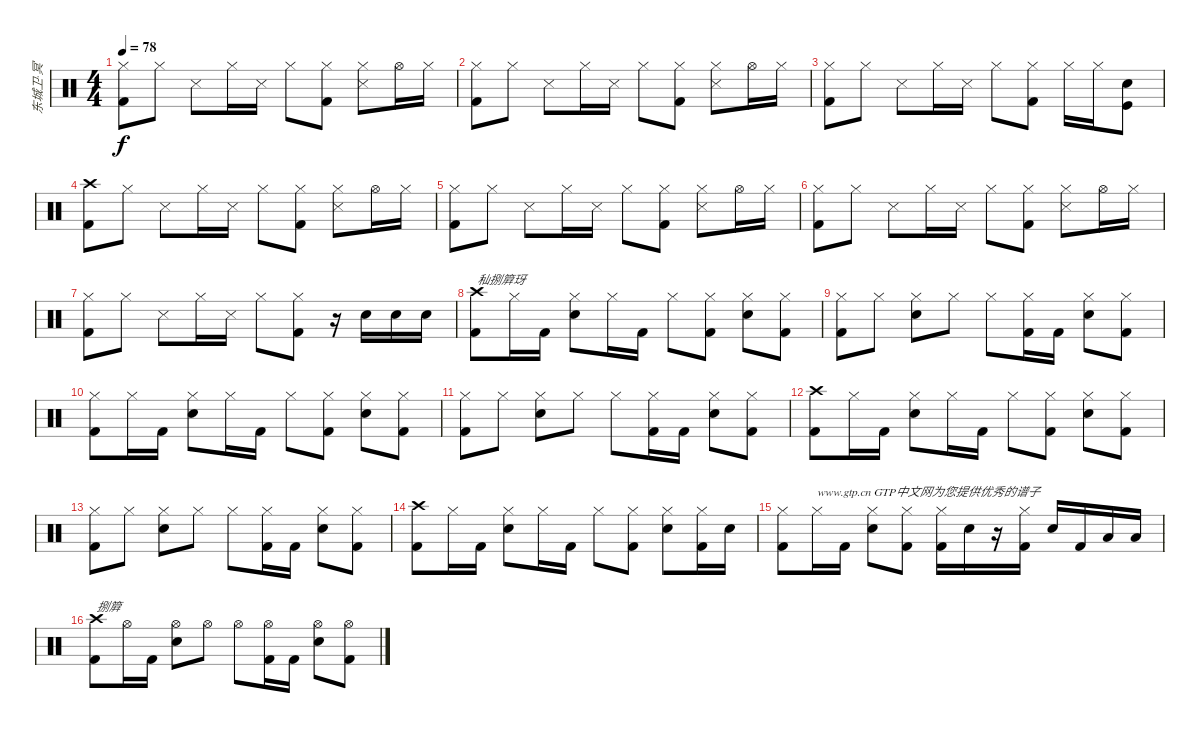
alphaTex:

\track ("东城卫·冥" "东城卫·冥") {instrument percussion}
\staff {score}
\articulation defaults
\ts (4 4)
\tempo 78
\clef neutral
\ks c
("Hi-Hat (closed)" "Kick (hit) 2").8{dy f} "Hi-Hat (closed)".8 "Metronome (hit)".8 "Hi-Hat (closed)".16 "Metronome (hit)".16 "Hi-Hat (closed)".8 ("Hi-Hat (closed)" "Kick (hit) 2").8 ("Hi-Hat (closed)" "Metronome (hit)").8 "Hi-Hat (open)".16 "Hi-Hat (closed)".16 |
("Hi-Hat (closed)" "Kick (hit) 2").8 "Hi-Hat (closed)".8 "Metronome (hit)".8 "Hi-Hat (closed)".16 "Metronome (hit)".16 "Hi-Hat (closed)".8 ("Hi-Hat (closed)" "Kick (hit) 2").8 ("Hi-Hat (closed)" "Metronome (hit)").8 "Hi-Hat (open)".16 "Hi-Hat (closed)".16 |
("Hi-Hat (closed)" "Kick (hit) 2").8 "Hi-Hat (closed)".8 "Metronome (hit)".8 "Hi-Hat (closed)".16 "Metronome (hit)".16 "Hi-Hat (closed)".8 ("Hi-Hat (closed)" "Kick (hit) 2").8 "Hi-Hat (closed)".16 "Hi-Hat (closed)".16 ("Kick (hit)" "Electric Snare (hit)").8 |
("Crash high (hit)" "Kick (hit) 2").8 "Hi-Hat (closed)".8 "Metronome (hit)".8 "Hi-Hat (closed)".16 "Metronome (hit)".16 "Hi-Hat (closed)".8 ("Hi-Hat (closed)" "Kick (hit) 2").8 ("Hi-Hat (closed)" "Metronome (hit)").8 "Hi-Hat (open)".16 "Hi-Hat (closed)".16 |
("Hi-Hat (closed)" "Kick (hit) 2").8 "Hi-Hat (closed)".8 "Metronome (hit)".8 "Hi-Hat (closed)".16 "Metronome (hit)".16 "Hi-Hat (closed)".8 ("Hi-Hat (closed)" "Kick (hit) 2").8 ("Hi-Hat (closed)" "Metronome (hit)").8 "Hi-Hat (open)".16 "Hi-Hat (closed)".16 |
("Hi-Hat (closed)" "Kick (hit) 2").8 "Hi-Hat (closed)".8 "Metronome (hit)".8 "Hi-Hat (closed)".16 "Metronome (hit)".16 "Hi-Hat (closed)".8 ("Hi-Hat (closed)" "Kick (hit) 2").8 ("Hi-Hat (closed)" "Metronome (hit)").8 "Hi-Hat (open)".16 "Hi-Hat (closed)".16 |
("Hi-Hat (closed)" "Kick (hit) 2").8 "Hi-Hat (closed)".8 "Metronome (hit)".8 "Hi-Hat (closed)".16 "Metronome (hit)".16 "Hi-Hat (closed)".8 ("Hi-Hat (closed)" "Kick (hit) 2").8 r.16 "Electric Snare (hit)".16 "Electric Snare (hit)".16 "Electric Snare (hit)".16 |
("Crash high (hit)" "Kick (hit) 2").8{txt "秈捌簈玡"} "Hi-Hat (closed)".16 "Kick (hit) 2".16 ("Hi-Hat (closed)" "Electric Snare (hit)").8 "Hi-Hat (closed)".16 "Kick (hit) 2".16 "Hi-Hat (closed)".8 ("Hi-Hat (closed)" "Kick (hit) 2").8 ("Hi-Hat (closed)" "Electric Snare (hit)").8 ("Hi-Hat (closed)" "Kick (hit) 2").8 |
("Hi-Hat (closed)" "Kick (hit) 2").8 "Hi-Hat (closed)".8 ("Hi-Hat (closed)" "Electric Snare (hit)").8 "Hi-Hat (closed)".8 "Hi-Hat (closed)".8 ("Hi-Hat (closed)" "Kick (hit) 2").16 "Kick (hit) 2".16 ("Hi-Hat (closed)" "Electric Snare (hit)").8 ("Hi-Hat (closed)" "Kick (hit) 2").8 |
("Hi-Hat (closed)" "Kick (hit) 2").8 "Hi-Hat (closed)".16 "Kick (hit) 2".16 ("Hi-Hat (closed)" "Electric Snare (hit)").8 "Hi-Hat (closed)".16 "Kick (hit) 2".16 "Hi-Hat (closed)".8 ("Hi-Hat (closed)" "Kick (hit) 2").8 ("Hi-Hat (closed)" "Electric Snare (hit)").8 ("Hi-Hat (closed)" "Kick (hit) 2").8 |
("Hi-Hat (closed)" "Kick (hit) 2").8 "Hi-Hat (closed)".8 ("Hi-Hat (closed)" "Electric Snare (hit)").8 "Hi-Hat (closed)".8 "Hi-Hat (closed)".8 ("Hi-Hat (closed)" "Kick (hit) 2").16 "Kick (hit) 2".16 ("Hi-Hat (closed)" "Electric Snare (hit)").8 ("Hi-Hat (closed)" "Kick (hit) 2").8 |
("Crash high (hit)" "Kick (hit) 2").8 "Hi-Hat (closed)".16 "Kick (hit) 2".16 ("Hi-Hat (closed)" "Electric Snare (hit)").8 "Hi-Hat (closed)".16 "Kick (hit) 2".16 "Hi-Hat (closed)".8 ("Hi-Hat (closed)" "Kick (hit) 2").8 ("Hi-Hat (closed)" "Electric Snare (hit)").8 ("Hi-Hat (closed)" "Kick (hit) 2").8 |
("Hi-Hat (closed)" "Kick (hit) 2").8 "Hi-Hat (closed)".8 ("Hi-Hat (closed)" "Electric Snare (hit)").8 "Hi-Hat (closed)".8 "Hi-Hat (closed)".8 ("Hi-Hat (closed)" "Kick (hit) 2").16 "Kick (hit) 2".16 ("Hi-Hat (closed)" "Electric Snare (hit)").8 ("Hi-Hat (closed)" "Kick (hit) 2").8 |
("Crash high (hit)" "Kick (hit) 2").8 "Hi-Hat (closed)".16 "Kick (hit) 2".16 ("Hi-Hat (closed)" "Electric Snare (hit)").8 "Hi-Hat (closed)".16 "Kick (hit) 2".16 "Hi-Hat (closed)".8 ("Hi-Hat (closed)" "Kick (hit) 2").8 ("Hi-Hat (closed)" "Electric Snare (hit)").8 ("Hi-Hat (closed)" "Kick (hit) 2").16 "Electric Snare (hit)".16 |
("Hi-Hat (closed)" "Kick (hit) 2").8 "Hi-Hat (closed)".16{txt "www.gtp.cn GTP中文网为您提供优秀的谱子"} "Kick (hit) 2".16 ("Hi-Hat (closed)" "Electric Snare (hit)").8 ("Hi-Hat (closed)" "Kick (hit) 2").8 ("Hi-Hat (closed)" "Kick (hit) 2").16 "Electric Snare (hit)".16 r.16 ("Hi-Hat (closed)" "Kick (hit) 2").16 "Electric Snare (hit)".16 "Kick (hit) 2".16 "Low Tom (hit)".16 "Low Tom (hit)".16 |
("Crash high (hit)" "Kick (hit) 2").8{txt "捌簈"} "Hi-Hat (open)".16 "Kick (hit) 2".16 ("Hi-Hat (open)" "Electric Snare (hit)").8 "Hi-Hat (open)".8 "Hi-Hat (open)".8 ("Hi-Hat (open)" "Kick (hit) 2").16 "Kick (hit) 2".16 ("Hi-Hat (open)" "Electric Snare (hit)").8 ("Hi-Hat (open)" "Kick (hit) 2").8
